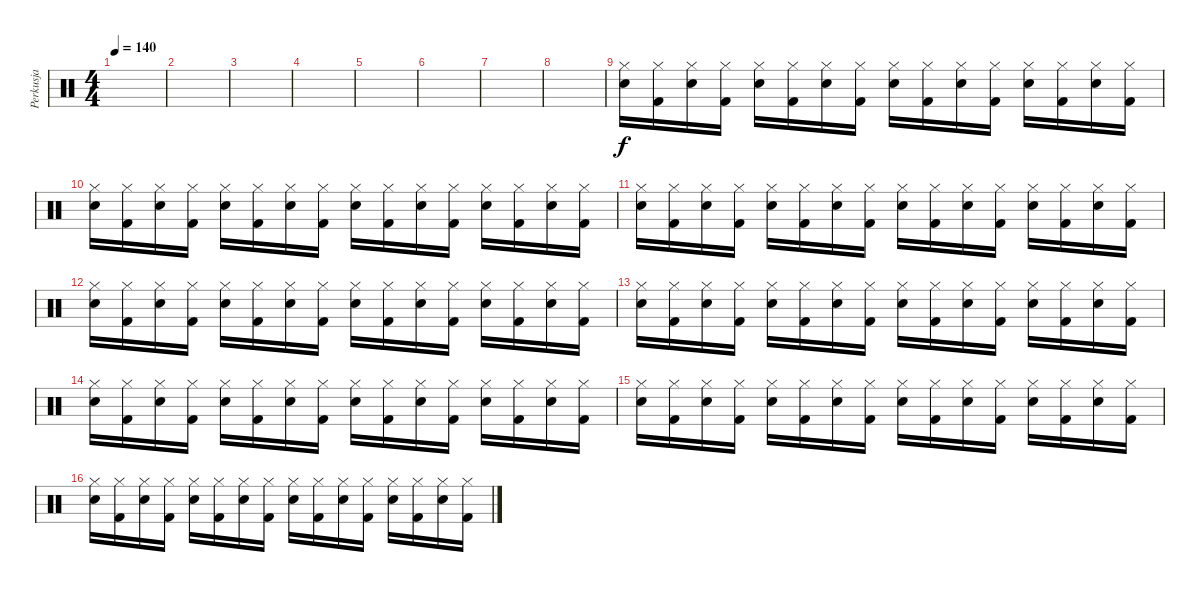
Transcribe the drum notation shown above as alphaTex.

\track ("Perkusja" "Perkusja") {instrument percussion}
\staff {score}
\articulation defaults
\ts (4 4)
\tempo 140
\clef neutral
\ks c
|
|
|
|
|
|
|
|
("Hi-Hat (closed)" "Snare (hit) 2").16 ("Hi-Hat (closed)" "Kick (hit) 2").16 ("Hi-Hat (closed)" "Snare (hit) 2").16 ("Hi-Hat (closed)" "Kick (hit) 2").16 ("Hi-Hat (closed)" "Snare (hit) 2").16 ("Hi-Hat (closed)" "Kick (hit) 2").16 ("Hi-Hat (closed)" "Snare (hit) 2").16 ("Hi-Hat (closed)" "Kick (hit) 2").16 ("Hi-Hat (closed)" "Snare (hit) 2").16 ("Hi-Hat (closed)" "Kick (hit) 2").16 ("Hi-Hat (closed)" "Snare (hit) 2").16 ("Hi-Hat (closed)" "Kick (hit) 2").16 ("Hi-Hat (closed)" "Snare (hit) 2").16 ("Hi-Hat (closed)" "Kick (hit) 2").16 ("Hi-Hat (closed)" "Snare (hit) 2").16 ("Hi-Hat (closed)" "Kick (hit) 2").16 |
("Hi-Hat (closed)" "Snare (hit) 2").16 ("Hi-Hat (closed)" "Kick (hit) 2").16 ("Hi-Hat (closed)" "Snare (hit) 2").16 ("Hi-Hat (closed)" "Kick (hit) 2").16 ("Hi-Hat (closed)" "Snare (hit) 2").16 ("Hi-Hat (closed)" "Kick (hit) 2").16 ("Hi-Hat (closed)" "Snare (hit) 2").16 ("Hi-Hat (closed)" "Kick (hit) 2").16 ("Hi-Hat (closed)" "Snare (hit) 2").16 ("Hi-Hat (closed)" "Kick (hit) 2").16 ("Hi-Hat (closed)" "Snare (hit) 2").16 ("Hi-Hat (closed)" "Kick (hit) 2").16 ("Hi-Hat (closed)" "Snare (hit) 2").16 ("Hi-Hat (closed)" "Kick (hit) 2").16 ("Hi-Hat (closed)" "Snare (hit) 2").16 ("Hi-Hat (closed)" "Kick (hit) 2").16 |
("Hi-Hat (closed)" "Snare (hit) 2").16 ("Hi-Hat (closed)" "Kick (hit) 2").16 ("Hi-Hat (closed)" "Snare (hit) 2").16 ("Hi-Hat (closed)" "Kick (hit) 2").16 ("Hi-Hat (closed)" "Snare (hit) 2").16 ("Hi-Hat (closed)" "Kick (hit) 2").16 ("Hi-Hat (closed)" "Snare (hit) 2").16 ("Hi-Hat (closed)" "Kick (hit) 2").16 ("Hi-Hat (closed)" "Snare (hit) 2").16 ("Hi-Hat (closed)" "Kick (hit) 2").16 ("Hi-Hat (closed)" "Snare (hit) 2").16 ("Hi-Hat (closed)" "Kick (hit) 2").16 ("Hi-Hat (closed)" "Snare (hit) 2").16 ("Hi-Hat (closed)" "Kick (hit) 2").16 ("Hi-Hat (closed)" "Snare (hit) 2").16 ("Hi-Hat (closed)" "Kick (hit) 2").16 |
("Hi-Hat (closed)" "Snare (hit) 2").16 ("Hi-Hat (closed)" "Kick (hit) 2").16 ("Hi-Hat (closed)" "Snare (hit) 2").16 ("Hi-Hat (closed)" "Kick (hit) 2").16 ("Hi-Hat (closed)" "Snare (hit) 2").16 ("Hi-Hat (closed)" "Kick (hit) 2").16 ("Hi-Hat (closed)" "Snare (hit) 2").16 ("Hi-Hat (closed)" "Kick (hit) 2").16 ("Hi-Hat (closed)" "Snare (hit) 2").16 ("Hi-Hat (closed)" "Kick (hit) 2").16 ("Hi-Hat (closed)" "Snare (hit) 2").16 ("Hi-Hat (closed)" "Kick (hit) 2").16 ("Hi-Hat (closed)" "Snare (hit) 2").16 ("Hi-Hat (closed)" "Kick (hit) 2").16 ("Hi-Hat (closed)" "Snare (hit) 2").16 ("Hi-Hat (closed)" "Kick (hit) 2").16 |
("Hi-Hat (closed)" "Snare (hit) 2").16 ("Hi-Hat (closed)" "Kick (hit) 2").16 ("Hi-Hat (closed)" "Snare (hit) 2").16 ("Hi-Hat (closed)" "Kick (hit) 2").16 ("Hi-Hat (closed)" "Snare (hit) 2").16 ("Hi-Hat (closed)" "Kick (hit) 2").16 ("Hi-Hat (closed)" "Snare (hit) 2").16 ("Hi-Hat (closed)" "Kick (hit) 2").16 ("Hi-Hat (closed)" "Snare (hit) 2").16 ("Hi-Hat (closed)" "Kick (hit) 2").16 ("Hi-Hat (closed)" "Snare (hit) 2").16 ("Hi-Hat (closed)" "Kick (hit) 2").16 ("Hi-Hat (closed)" "Snare (hit) 2").16 ("Hi-Hat (closed)" "Kick (hit) 2").16 ("Hi-Hat (closed)" "Snare (hit) 2").16 ("Hi-Hat (closed)" "Kick (hit) 2").16 |
("Hi-Hat (closed)" "Snare (hit) 2").16 ("Hi-Hat (closed)" "Kick (hit) 2").16 ("Hi-Hat (closed)" "Snare (hit) 2").16 ("Hi-Hat (closed)" "Kick (hit) 2").16 ("Hi-Hat (closed)" "Snare (hit) 2").16 ("Hi-Hat (closed)" "Kick (hit) 2").16 ("Hi-Hat (closed)" "Snare (hit) 2").16 ("Hi-Hat (closed)" "Kick (hit) 2").16 ("Hi-Hat (closed)" "Snare (hit) 2").16 ("Hi-Hat (closed)" "Kick (hit) 2").16 ("Hi-Hat (closed)" "Snare (hit) 2").16 ("Hi-Hat (closed)" "Kick (hit) 2").16 ("Hi-Hat (closed)" "Snare (hit) 2").16 ("Hi-Hat (closed)" "Kick (hit) 2").16 ("Hi-Hat (closed)" "Snare (hit) 2").16 ("Hi-Hat (closed)" "Kick (hit) 2").16 |
("Hi-Hat (closed)" "Snare (hit) 2").16 ("Hi-Hat (closed)" "Kick (hit) 2").16 ("Hi-Hat (closed)" "Snare (hit) 2").16 ("Hi-Hat (closed)" "Kick (hit) 2").16 ("Hi-Hat (closed)" "Snare (hit) 2").16 ("Hi-Hat (closed)" "Kick (hit) 2").16 ("Hi-Hat (closed)" "Snare (hit) 2").16 ("Hi-Hat (closed)" "Kick (hit) 2").16 ("Hi-Hat (closed)" "Snare (hit) 2").16 ("Hi-Hat (closed)" "Kick (hit) 2").16 ("Hi-Hat (closed)" "Snare (hit) 2").16 ("Hi-Hat (closed)" "Kick (hit) 2").16 ("Hi-Hat (closed)" "Snare (hit) 2").16 ("Hi-Hat (closed)" "Kick (hit) 2").16 ("Hi-Hat (closed)" "Snare (hit) 2").16 ("Hi-Hat (closed)" "Kick (hit) 2").16 |
("Hi-Hat (closed)" "Snare (hit) 2").16 ("Hi-Hat (closed)" "Kick (hit) 2").16 ("Hi-Hat (closed)" "Snare (hit) 2").16 ("Hi-Hat (closed)" "Kick (hit) 2").16 ("Hi-Hat (closed)" "Snare (hit) 2").16 ("Hi-Hat (closed)" "Kick (hit) 2").16 ("Hi-Hat (closed)" "Snare (hit) 2").16 ("Hi-Hat (closed)" "Kick (hit) 2").16 ("Hi-Hat (closed)" "Snare (hit) 2").16 ("Hi-Hat (closed)" "Kick (hit) 2").16 ("Hi-Hat (closed)" "Snare (hit) 2").16 ("Hi-Hat (closed)" "Kick (hit) 2").16 ("Hi-Hat (closed)" "Snare (hit) 2").16 ("Hi-Hat (closed)" "Kick (hit) 2").16 ("Hi-Hat (closed)" "Snare (hit) 2").16 ("Hi-Hat (closed)" "Kick (hit) 2").16
